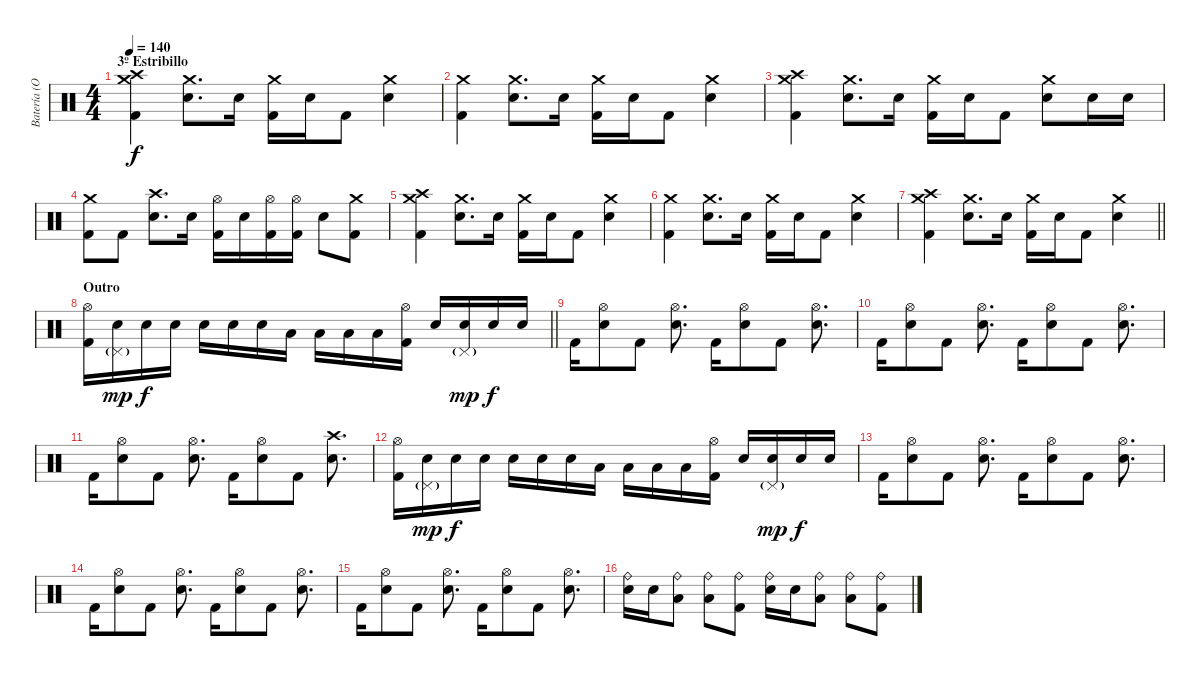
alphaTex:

\track ("Batería (Oxi)" "Batería (O") {instrument percussion}
\staff {score}
\articulation defaults
\ts (4 4)
\section ("" "3º Estribillo")
\tempo 140
\clef neutral
\ks c
("Crash medium (hit)" "Crash high (hit)" "Kick (hit) 2").4{dy f} ("Crash medium (hit)" "Electric Snare (hit)").8{d} "Electric Snare (hit)".16 ("Crash medium (hit)" "Kick (hit) 2").16 "Electric Snare (hit)".16 "Kick (hit) 2".8 ("Crash medium (hit)" "Electric Snare (hit)").4 |
("Crash medium (hit)" "Kick (hit) 2").4 ("Crash medium (hit)" "Electric Snare (hit)").8{d} "Electric Snare (hit)".16 ("Crash medium (hit)" "Kick (hit) 2").16 "Electric Snare (hit)".16 "Kick (hit) 2".8 ("Crash medium (hit)" "Electric Snare (hit)").4 |
("Crash medium (hit)" "Crash high (hit)" "Kick (hit) 2").4 ("Crash medium (hit)" "Electric Snare (hit)").8{d} "Electric Snare (hit)".16 ("Crash medium (hit)" "Kick (hit) 2").16 "Electric Snare (hit)".16 "Kick (hit) 2".8 ("Crash medium (hit)" "Electric Snare (hit)").8 "Electric Snare (hit)".16 "Electric Snare (hit)".16 |
("Crash medium (hit)" "Kick (hit) 2").8 "Kick (hit) 2".8 ("Crash high (hit)" "Electric Snare (hit)").8{d} "Electric Snare (hit)".16 ("Hi-Hat (open)" "Kick (hit) 2").16 "Electric Snare (hit)".16 ("Hi-Hat (open)" "Kick (hit) 2").16 ("Hi-Hat (open)" "Kick (hit) 2").16 "Electric Snare (hit)".8 ("Crash medium (hit)" "Kick (hit) 2").8 |
("Crash medium (hit)" "Crash high (hit)" "Kick (hit) 2").4 ("Crash medium (hit)" "Electric Snare (hit)").8{d} "Electric Snare (hit)".16 ("Crash medium (hit)" "Kick (hit) 2").16 "Electric Snare (hit)".16 "Kick (hit) 2".8 ("Crash medium (hit)" "Electric Snare (hit)").4 |
("Crash medium (hit)" "Kick (hit) 2").4 ("Crash medium (hit)" "Electric Snare (hit)").8{d} "Electric Snare (hit)".16 ("Crash medium (hit)" "Kick (hit) 2").16 "Electric Snare (hit)".16 "Kick (hit) 2".8 ("Crash medium (hit)" "Electric Snare (hit)").4 |
\barLineRight lightlight
("Crash medium (hit)" "Crash high (hit)" "Kick (hit) 2").4 ("Crash medium (hit)" "Electric Snare (hit)").8{d} "Electric Snare (hit)".16 ("Crash medium (hit)" "Kick (hit) 2").16 "Electric Snare (hit)".16 "Kick (hit) 2".8 ("Crash medium (hit)" "Electric Snare (hit)").4 |
\section ("" "Outro")
\barLineRight lightlight
("Hi-Hat (open)" "Kick (hit) 2").16 ("Pedal Hi-Hat (hit)"{g} "Electric Snare (hit)").16{dy mp} "Electric Snare (hit)".16{dy f} "Electric Snare (hit)".16 "Electric Snare (hit)".16 "Electric Snare (hit)".16 "Electric Snare (hit)".16 "Low Tom (hit)".16 "Low Tom (hit)".16 "Low Tom (hit)".16 "Low Tom (hit)".16 ("Hi-Hat (open)" "Kick (hit) 2").16 "Electric Snare (hit)".16 ("Pedal Hi-Hat (hit)"{g} "Electric Snare (hit)").16{dy mp} "Electric Snare (hit)".16{dy f} "Electric Snare (hit)".16 |
"Kick (hit) 2".16 ("Hi-Hat (open)" "Electric Snare (hit)").8 "Kick (hit) 2".8 ("Hi-Hat (open)" "Electric Snare (hit)").8{d} "Kick (hit) 2".16 ("Hi-Hat (open)" "Electric Snare (hit)").8 "Kick (hit) 2".8 ("Hi-Hat (open)" "Electric Snare (hit)").8{d} |
"Kick (hit) 2".16 ("Hi-Hat (open)" "Electric Snare (hit)").8 "Kick (hit) 2".8 ("Hi-Hat (open)" "Electric Snare (hit)").8{d} "Kick (hit) 2".16 ("Hi-Hat (open)" "Electric Snare (hit)").8 "Kick (hit) 2".8 ("Hi-Hat (open)" "Electric Snare (hit)").8{d} |
"Kick (hit) 2".16 ("Hi-Hat (open)" "Electric Snare (hit)").8 "Kick (hit) 2".8 ("Hi-Hat (open)" "Electric Snare (hit)").8{d} "Kick (hit) 2".16 ("Hi-Hat (open)" "Electric Snare (hit)").8 "Kick (hit) 2".8 ("Crash high (hit)" "Electric Snare (hit)").8{d} |
("Hi-Hat (open)" "Kick (hit) 2").16 ("Pedal Hi-Hat (hit)"{g} "Electric Snare (hit)").16{dy mp} "Electric Snare (hit)".16{dy f} "Electric Snare (hit)".16 "Electric Snare (hit)".16 "Electric Snare (hit)".16 "Electric Snare (hit)".16 "Low Tom (hit)".16 "Low Tom (hit)".16 "Low Tom (hit)".16 "Low Tom (hit)".16 ("Hi-Hat (open)" "Kick (hit) 2").16 "Electric Snare (hit)".16 ("Pedal Hi-Hat (hit)"{g} "Electric Snare (hit)").16{dy mp} "Electric Snare (hit)".16{dy f} "Electric Snare (hit)".16 |
"Kick (hit) 2".16 ("Hi-Hat (open)" "Electric Snare (hit)").8 "Kick (hit) 2".8 ("Hi-Hat (open)" "Electric Snare (hit)").8{d} "Kick (hit) 2".16 ("Hi-Hat (open)" "Electric Snare (hit)").8 "Kick (hit) 2".8 ("Hi-Hat (open)" "Electric Snare (hit)").8{d} |
"Kick (hit) 2".16 ("Hi-Hat (open)" "Electric Snare (hit)").8 "Kick (hit) 2".8 ("Hi-Hat (open)" "Electric Snare (hit)").8{d} "Kick (hit) 2".16 ("Hi-Hat (open)" "Electric Snare (hit)").8 "Kick (hit) 2".8 ("Hi-Hat (open)" "Electric Snare (hit)").8{d} |
"Kick (hit) 2".16 ("Hi-Hat (open)" "Electric Snare (hit)").8 "Kick (hit) 2".8 ("Hi-Hat (open)" "Electric Snare (hit)").8{d} "Kick (hit) 2".16 ("Hi-Hat (open)" "Electric Snare (hit)").8 "Kick (hit) 2".8 ("Hi-Hat (open)" "Electric Snare (hit)").8{d} |
("Ride (bell)" "Electric Snare (hit)").16 "Electric Snare (hit)".16 ("Ride (bell)" "Low Tom (hit)").8 ("Ride (bell)" "Low Tom (hit)").8 ("Ride (bell)" "Kick (hit) 2").8 ("Ride (bell)" "Electric Snare (hit)").16 "Electric Snare (hit)".16 ("Ride (bell)" "Low Tom (hit)").8 ("Ride (bell)" "Low Tom (hit)").8 ("Ride (bell)" "Kick (hit) 2").8
